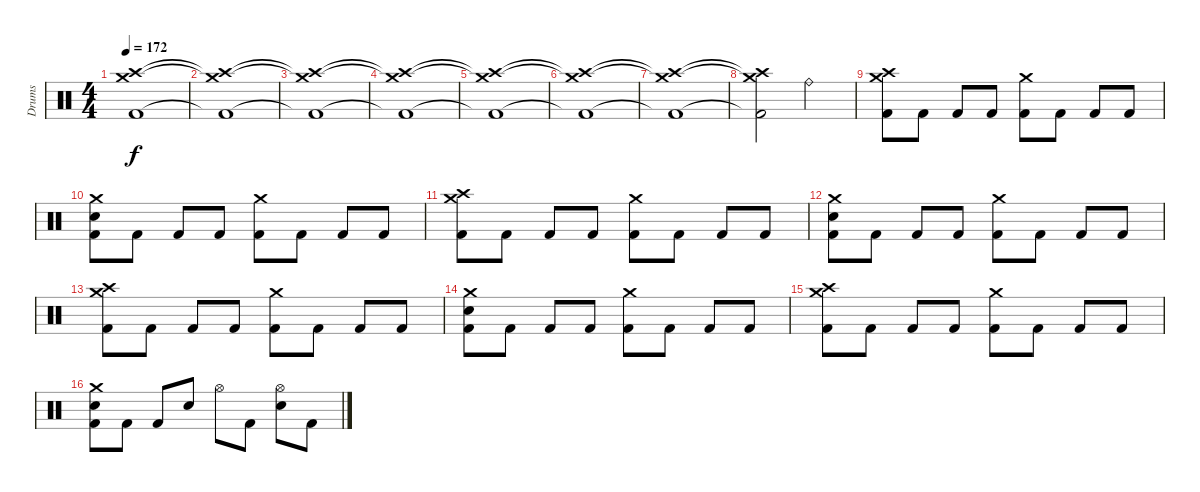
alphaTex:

\track ("Drums" "Drums") {instrument percussion}
\staff {score}
\articulation defaults
\ts (4 4)
\tempo 172
\clef neutral
\ks c
("Crash medium (hit)" "Crash high (hit)" "Kick (hit) 2").1{dy f} |
("Crash medium (hit)"{t} "Crash high (hit)"{t} "Kick (hit) 2"{t}).1 |
("Crash medium (hit)"{t} "Crash high (hit)"{t} "Kick (hit) 2"{t}).1 |
("Crash medium (hit)"{t} "Crash high (hit)"{t} "Kick (hit) 2"{t}).1 |
("Crash medium (hit)"{t} "Crash high (hit)"{t} "Kick (hit) 2"{t}).1 |
("Crash medium (hit)"{t} "Crash high (hit)"{t} "Kick (hit) 2"{t}).1 |
("Crash medium (hit)"{t} "Crash high (hit)"{t} "Kick (hit) 2"{t}).1 |
("Crash medium (hit)"{t} "Crash high (hit)"{t} "Kick (hit) 2"{t}).2 "Ride (bell)".2 |
("Crash medium (hit)" "Crash high (hit)" "Kick (hit) 2").8 "Kick (hit) 2".8 "Kick (hit) 2".8 "Kick (hit) 2".8 ("Crash medium (hit)" "Kick (hit) 2").8 "Kick (hit) 2".8 "Kick (hit) 2".8 "Kick (hit) 2".8 |
("Crash medium (hit)" "Electric Snare (hit)" "Kick (hit) 2").8 "Kick (hit) 2".8 "Kick (hit) 2".8 "Kick (hit) 2".8 ("Crash medium (hit)" "Kick (hit) 2").8 "Kick (hit) 2".8 "Kick (hit) 2".8 "Kick (hit) 2".8 |
("Crash medium (hit)" "Crash high (hit)" "Kick (hit) 2").8 "Kick (hit) 2".8 "Kick (hit) 2".8 "Kick (hit) 2".8 ("Crash medium (hit)" "Kick (hit) 2").8 "Kick (hit) 2".8 "Kick (hit) 2".8 "Kick (hit) 2".8 |
("Crash medium (hit)" "Electric Snare (hit)" "Kick (hit) 2").8 "Kick (hit) 2".8 "Kick (hit) 2".8 "Kick (hit) 2".8 ("Crash medium (hit)" "Kick (hit) 2").8 "Kick (hit) 2".8 "Kick (hit) 2".8 "Kick (hit) 2".8 |
("Crash medium (hit)" "Crash high (hit)" "Kick (hit) 2").8 "Kick (hit) 2".8 "Kick (hit) 2".8 "Kick (hit) 2".8 ("Crash medium (hit)" "Kick (hit) 2").8 "Kick (hit) 2".8 "Kick (hit) 2".8 "Kick (hit) 2".8 |
("Crash medium (hit)" "Electric Snare (hit)" "Kick (hit) 2").8 "Kick (hit) 2".8 "Kick (hit) 2".8 "Kick (hit) 2".8 ("Crash medium (hit)" "Kick (hit) 2").8 "Kick (hit) 2".8 "Kick (hit) 2".8 "Kick (hit) 2".8 |
("Crash medium (hit)" "Crash high (hit)" "Kick (hit) 2").8 "Kick (hit) 2".8 "Kick (hit) 2".8 "Kick (hit) 2".8 ("Crash medium (hit)" "Kick (hit) 2").8 "Kick (hit) 2".8 "Kick (hit) 2".8 "Kick (hit) 2".8 |
("Crash medium (hit)" "Electric Snare (hit)" "Kick (hit) 2").8 "Kick (hit) 2".8 "Kick (hit) 2".8 "Electric Snare (hit)".8 "Hi-Hat (open)".8 "Kick (hit) 2".8 ("Hi-Hat (open)" "Electric Snare (hit)").8 "Kick (hit) 2".8
